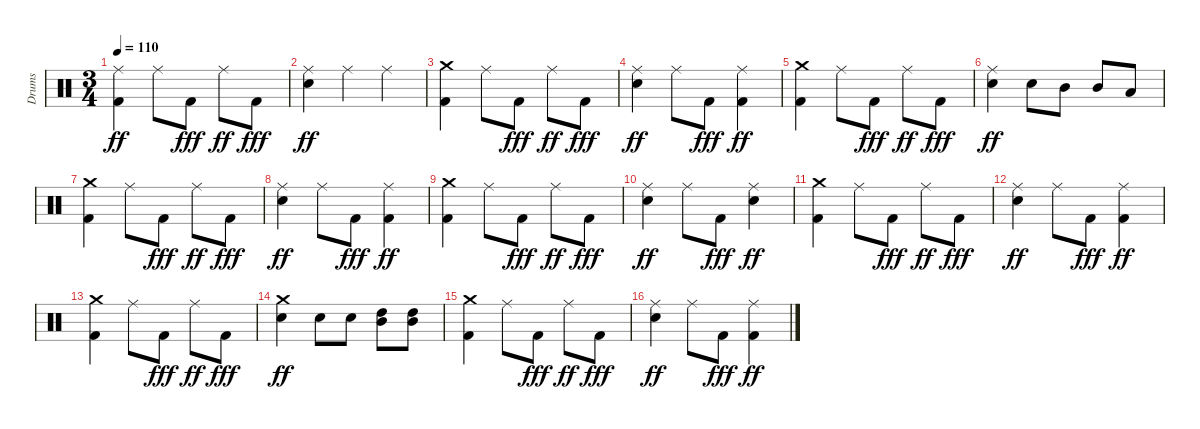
\track ("Drums" "Drums") {instrument percussion}
\staff {score}
\articulation defaults
\ts (3 4)
\tempo 110
\clef neutral
\ks c
("Ride (middle)" "Kick (hit) 2").4{dy ff} "Ride (middle)".8 "Kick (hit) 2".8{dy fff} "Ride (middle)".8{dy ff} "Kick (hit) 2".8{dy fff} |
("Ride (middle)" "Snare (hit) 2").4{dy ff} "Ride (middle)".4 "Ride (middle)".4 |
("Crash medium (hit)" "Kick (hit) 2").4 "Ride (middle)".8 "Kick (hit) 2".8{dy fff} "Ride (middle)".8{dy ff} "Kick (hit) 2".8{dy fff} |
("Ride (middle)" "Snare (hit) 2").4{dy ff} "Ride (middle)".8 "Kick (hit) 2".8{dy fff} ("Ride (middle)" "Kick (hit) 2").4{dy ff} |
("Crash medium (hit)" "Kick (hit) 2").4 "Ride (middle)".8 "Kick (hit) 2".8{dy fff} "Ride (middle)".8{dy ff} "Kick (hit) 2".8{dy fff} |
("Ride (middle)" "Snare (hit) 2").4{dy ff} "Snare (hit) 2".8 "Mid Tom (hit)".8 "Mid Tom (hit)".8 "Low Tom (hit)".8 |
("Crash medium (hit)" "Kick (hit) 2").4 "Ride (middle)".8 "Kick (hit) 2".8{dy fff} "Ride (middle)".8{dy ff} "Kick (hit) 2".8{dy fff} |
("Ride (middle)" "Snare (hit) 2").4{dy ff} "Ride (middle)".8 "Kick (hit) 2".8{dy fff} ("Ride (middle)" "Kick (hit) 2").4{dy ff} |
("Crash medium (hit)" "Kick (hit) 2").4 "Ride (middle)".8 "Kick (hit) 2".8{dy fff} "Ride (middle)".8{dy ff} "Kick (hit) 2".8{dy fff} |
("Ride (middle)" "Snare (hit) 2").4{dy ff} "Ride (middle)".8 "Kick (hit) 2".8{dy fff} ("Ride (middle)" "Snare (hit) 2").4{dy ff} |
("Crash medium (hit)" "Kick (hit) 2").4 "Ride (middle)".8 "Kick (hit) 2".8{dy fff} "Ride (middle)".8{dy ff} "Kick (hit) 2".8{dy fff} |
("Ride (middle)" "Snare (hit) 2").4{dy ff} "Ride (middle)".8 "Kick (hit) 2".8{dy fff} ("Ride (middle)" "Kick (hit) 2").4{dy ff} |
("Crash medium (hit)" "Kick (hit) 2").4 "Ride (middle)".8 "Kick (hit) 2".8{dy fff} "Ride (middle)".8{dy ff} "Kick (hit) 2".8{dy fff} |
("Crash medium (hit)" "Snare (hit) 2").4{dy ff} "Snare (hit) 2".8 "Snare (hit) 2".8 ("High Tom (hit)" "Mid Tom (hit)").8 ("High Tom (hit)" "Mid Tom (hit)").8 |
("Crash medium (hit)" "Kick (hit) 2").4 "Ride (middle)".8 "Kick (hit) 2".8{dy fff} "Ride (middle)".8{dy ff} "Kick (hit) 2".8{dy fff} |
("Ride (middle)" "Snare (hit) 2").4{dy ff} "Ride (middle)".8 "Kick (hit) 2".8{dy fff} ("Ride (middle)" "Kick (hit) 2").4{dy ff}
